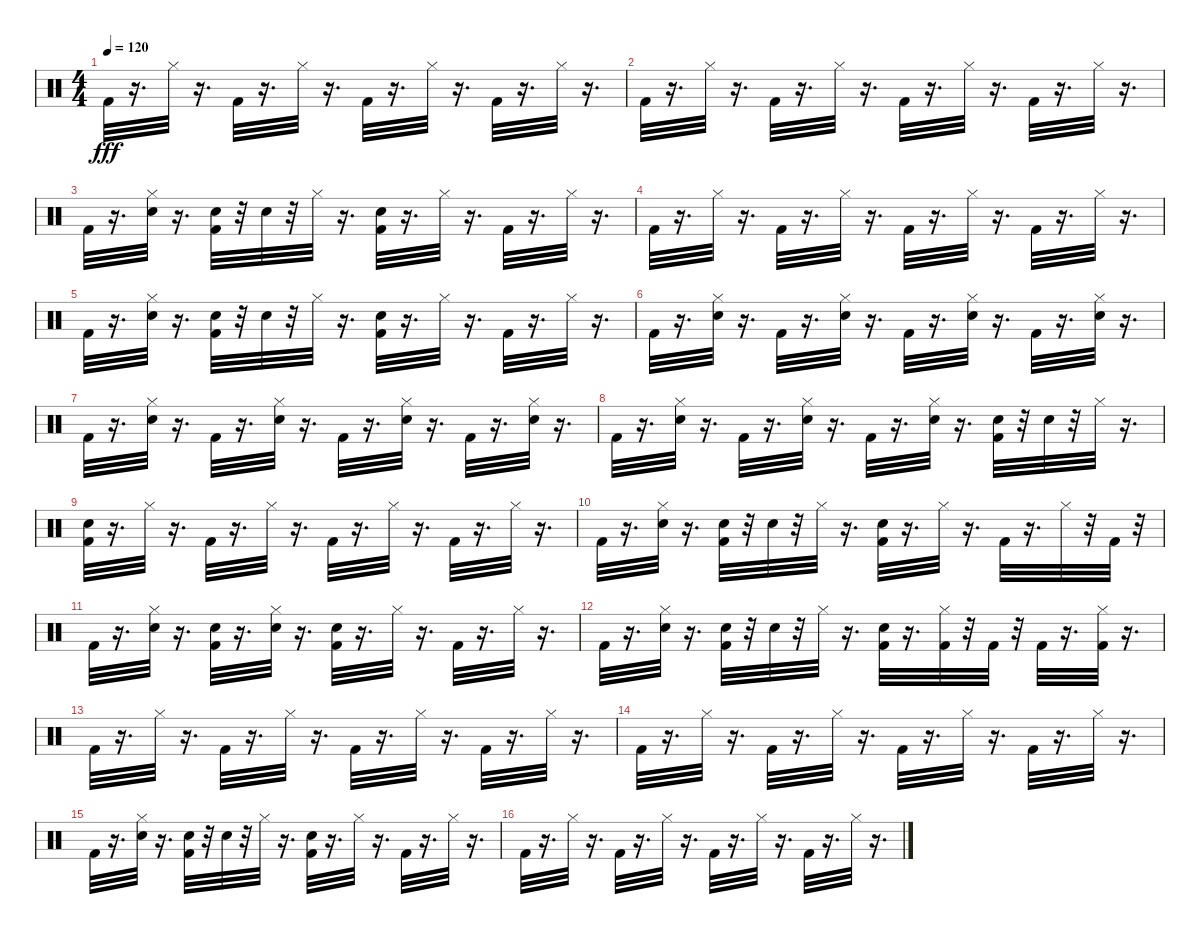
\track "" {instrument percussion}
\staff {score}
\articulation defaults
\ts (4 4)
\tempo 120
\clef neutral
\ks c "Kick (hit) 2".32{dy fff}
r.16{d} "Hi-Hat (closed)".32 r.16{d} "Kick (hit) 2".32 r.16{d} "Hi-Hat (closed)".32 r.16{d} "Kick (hit) 2".32 r.16{d} "Hi-Hat (closed)".32 r.16{d} "Kick (hit) 2".32 r.16{d} "Hi-Hat (closed)".32 r.16{d} |
"Kick (hit) 2".32 r.16{d} "Hi-Hat (closed)".32 r.16{d} "Kick (hit) 2".32 r.16{d} "Hi-Hat (closed)".32 r.16{d} "Kick (hit) 2".32 r.16{d} "Hi-Hat (closed)".32 r.16{d} "Kick (hit) 2".32 r.16{d} "Hi-Hat (closed)".32 r.16{d} |
"Kick (hit) 2".32 r.16{d} ("Hand Clap (hit)" "Hi-Hat (closed)").32 r.16{d} ("Hand Clap (hit)" "Kick (hit) 2").32 r.32 "Hand Clap (hit)".32 r.32 "Hi-Hat (closed)".32 r.16{d} ("Hand Clap (hit)" "Kick (hit) 2").32 r.16{d} "Hi-Hat (closed)".32 r.16{d} "Kick (hit) 2".32 r.16{d} "Hi-Hat (closed)".32 r.16{d} |
"Kick (hit) 2".32 r.16{d} "Hi-Hat (closed)".32 r.16{d} "Kick (hit) 2".32 r.16{d} "Hi-Hat (closed)".32 r.16{d} "Kick (hit) 2".32 r.16{d} "Hi-Hat (closed)".32 r.16{d} "Kick (hit) 2".32 r.16{d} "Hi-Hat (closed)".32 r.16{d} |
"Kick (hit) 2".32 r.16{d} ("Hi-Hat (closed)" "Hand Clap (hit)").32 r.16{d} ("Kick (hit) 2" "Hand Clap (hit)").32 r.32 "Hand Clap (hit)".32 r.32 "Hi-Hat (closed)".32 r.16{d} ("Hand Clap (hit)" "Kick (hit) 2").32 r.16{d} "Hi-Hat (closed)".32 r.16{d} "Kick (hit) 2".32 r.16{d} "Hi-Hat (closed)".32 r.16{d} |
"Kick (hit) 2".32 r.16{d} ("Hand Clap (hit)" "Hi-Hat (closed)").32 r.16{d} "Kick (hit) 2".32 r.16{d} ("Hand Clap (hit)" "Hi-Hat (closed)").32 r.16{d} "Kick (hit) 2".32 r.16{d} ("Hand Clap (hit)" "Hi-Hat (closed)").32 r.16{d} "Kick (hit) 2".32 r.16{d} ("Hand Clap (hit)" "Hi-Hat (closed)").32 r.16{d} |
"Kick (hit) 2".32 r.16{d} ("Hand Clap (hit)" "Hi-Hat (closed)").32 r.16{d} "Kick (hit) 2".32 r.16{d} ("Hand Clap (hit)" "Hi-Hat (closed)").32 r.16{d} "Kick (hit) 2".32 r.16{d} ("Hand Clap (hit)" "Hi-Hat (closed)").32 r.16{d} "Kick (hit) 2".32 r.16{d} ("Hand Clap (hit)" "Hi-Hat (closed)").32 r.16{d} |
"Kick (hit) 2".32 r.16{d} ("Hand Clap (hit)" "Hi-Hat (closed)").32 r.16{d} "Kick (hit) 2".32 r.16{d} ("Hand Clap (hit)" "Hi-Hat (closed)").32 r.16{d} "Kick (hit) 2".32 r.16{d} ("Hi-Hat (closed)" "Hand Clap (hit)").32 r.16{d} ("Hand Clap (hit)" "Kick (hit) 2").32 r.32 "Hand Clap (hit)".32 r.32 "Hi-Hat (closed)".32 r.16{d} |
("Hand Clap (hit)" "Kick (hit) 2").32 r.16{d} "Hi-Hat (closed)".32 r.16{d} "Kick (hit) 2".32 r.16{d} "Hi-Hat (closed)".32 r.16{d} "Kick (hit) 2".32 r.16{d} "Hi-Hat (closed)".32 r.16{d} "Kick (hit) 2".32 r.16{d} "Hi-Hat (closed)".32 r.16{d} |
"Kick (hit) 2".32 r.16{d} ("Hi-Hat (closed)" "Hand Clap (hit)").32 r.16{d} ("Kick (hit) 2" "Hand Clap (hit)").32 r.32 "Hand Clap (hit)".32 r.32 "Hi-Hat (closed)".32 r.16{d} ("Kick (hit) 2" "Hand Clap (hit)").32 r.16{d} "Hi-Hat (closed)".32 r.16{d} "Kick (hit) 2".32 r.16{d} "Hi-Hat (closed)".32 r.32 "Kick (hit) 2".32 r.32 |
"Kick (hit) 2".32 r.16{d} ("Hand Clap (hit)" "Hi-Hat (closed)").32 r.16{d} ("Hand Clap (hit)" "Kick (hit) 2").32 r.16{d} ("Hand Clap (hit)" "Hi-Hat (closed)").32 r.16{d} ("Hand Clap (hit)" "Kick (hit) 2").32 r.16{d} "Hi-Hat (closed)".32 r.16{d} "Kick (hit) 2".32 r.16{d} "Hi-Hat (closed)".32 r.16{d} |
"Kick (hit) 2".32 r.16{d} ("Hi-Hat (closed)" "Hand Clap (hit)").32 r.16{d} ("Hand Clap (hit)" "Kick (hit) 2").32 r.32 "Hand Clap (hit)".32 r.32 "Hi-Hat (closed)".32 r.16{d} ("Kick (hit) 2" "Hand Clap (hit)").32 r.16{d} ("Hi-Hat (closed)" "Kick (hit) 2").32 r.32 "Kick (hit) 2".32 r.32 "Kick (hit) 2".32 r.16{d} ("Hi-Hat (closed)" "Kick (hit) 2").32 r.16{d} |
"Kick (hit) 2".32{volume 16} r.16{d} "Hi-Hat (closed)".32 r.16{d} "Kick (hit) 2".32 r.16{d} "Hi-Hat (closed)".32 r.16{d} "Kick (hit) 2".32 r.16{d} "Hi-Hat (closed)".32 r.16{d} "Kick (hit) 2".32 r.16{d} "Hi-Hat (closed)".32 r.16{d} |
"Kick (hit) 2".32 r.16{d} "Hi-Hat (closed)".32 r.16{d} "Kick (hit) 2".32 r.16{d} "Hi-Hat (closed)".32 r.16{d} "Kick (hit) 2".32 r.16{d} "Hi-Hat (closed)".32 r.16{d} "Kick (hit) 2".32 r.16{d} "Hi-Hat (closed)".32 r.16{d} |
"Kick (hit) 2".32 r.16{d} ("Hand Clap (hit)" "Hi-Hat (closed)").32 r.16{d} ("Hand Clap (hit)" "Kick (hit) 2").32 r.32 "Hand Clap (hit)".32 r.32 "Hi-Hat (closed)".32 r.16{d} ("Hand Clap (hit)" "Kick (hit) 2").32 r.16{d} "Hi-Hat (closed)".32 r.16{d} "Kick (hit) 2".32 r.16{d} "Hi-Hat (closed)".32 r.16{d} |
"Kick (hit) 2".32 r.16{d} "Hi-Hat (closed)".32 r.16{d} "Kick (hit) 2".32 r.16{d} "Hi-Hat (closed)".32 r.16{d} "Kick (hit) 2".32 r.16{d} "Hi-Hat (closed)".32 r.16{d} "Kick (hit) 2".32 r.16{d} "Hi-Hat (closed)".32 r.16{d}
